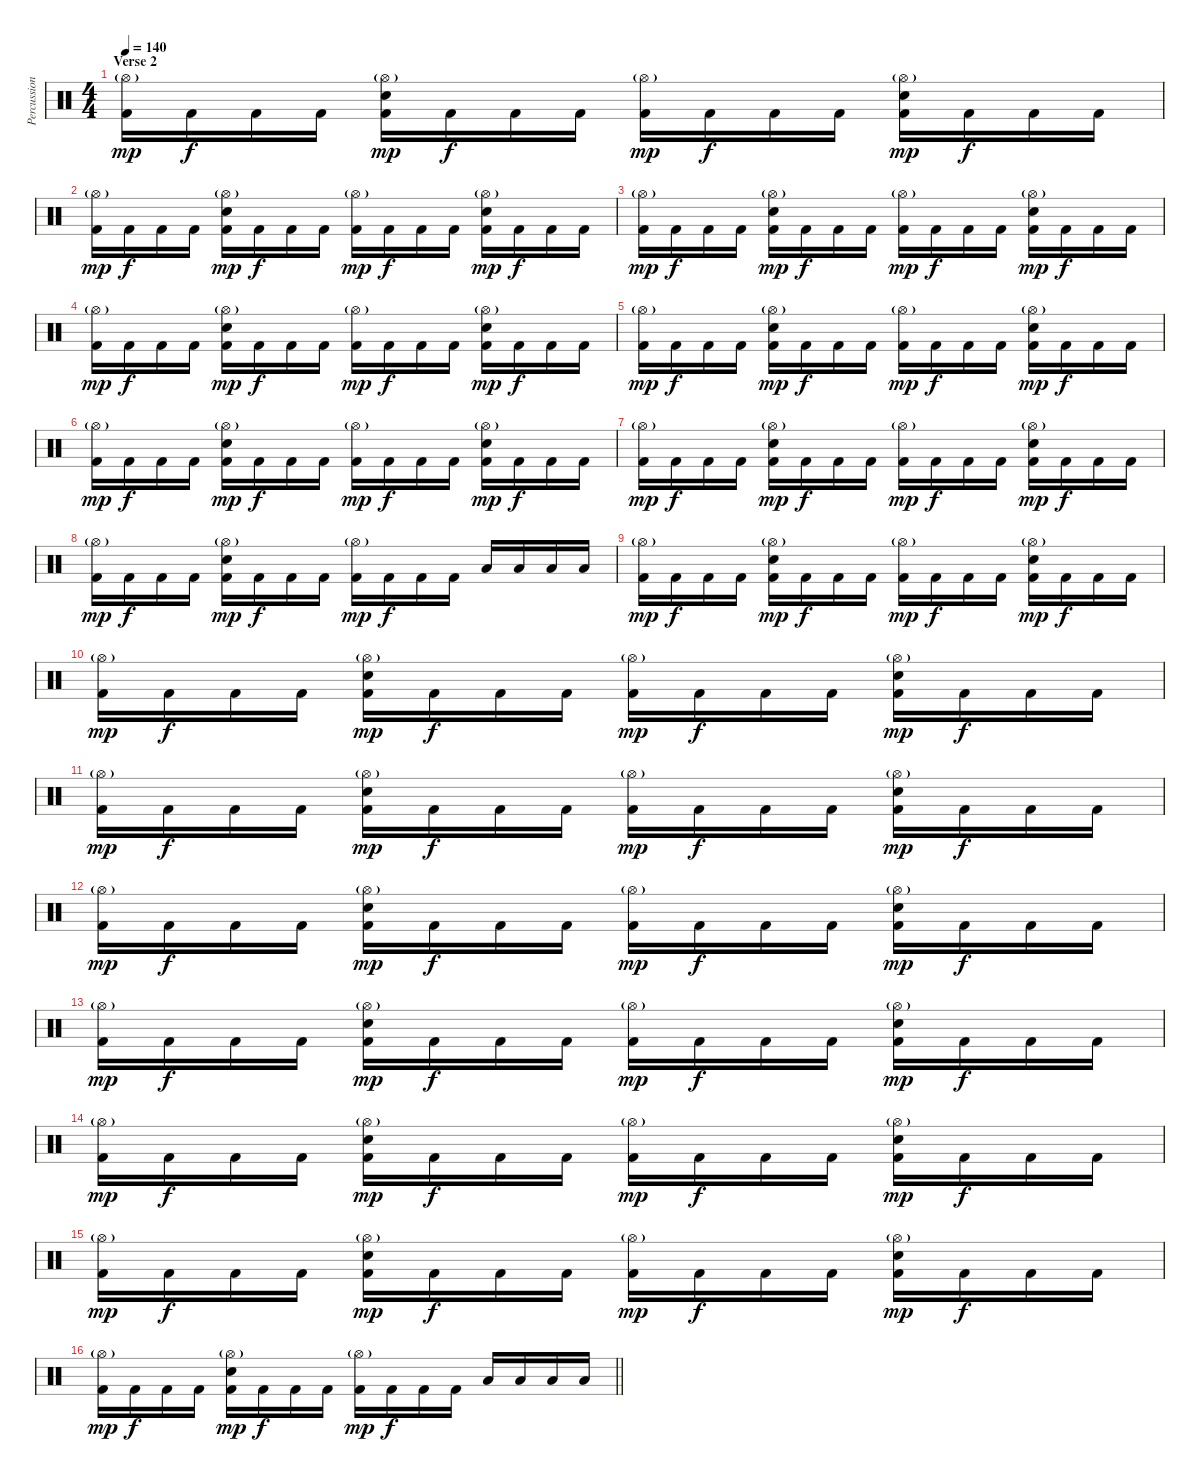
\track ("Percussions" "Percussion") {instrument percussion}
\staff {score}
\articulation defaults
\ts (4 4)
\section ("" "Verse 2")
\tempo 140
\clef neutral
\ks c
("Hi-Hat (open)"{g} "Kick (hit) 2").16{dy mp} "Kick (hit) 2".16{dy f} "Kick (hit) 2".16 "Kick (hit) 2".16 ("Hi-Hat (open)"{g} "Electric Snare (hit)" "Kick (hit) 2").16{dy mp} "Kick (hit) 2".16{dy f} "Kick (hit) 2".16 "Kick (hit) 2".16 ("Hi-Hat (open)"{g} "Kick (hit) 2").16{dy mp} "Kick (hit) 2".16{dy f} "Kick (hit) 2".16 "Kick (hit) 2".16 ("Hi-Hat (open)"{g} "Electric Snare (hit)" "Kick (hit) 2").16{dy mp} "Kick (hit) 2".16{dy f} "Kick (hit) 2".16 "Kick (hit) 2".16 |
("Hi-Hat (open)"{g} "Kick (hit) 2").16{dy mp} "Kick (hit) 2".16{dy f} "Kick (hit) 2".16 "Kick (hit) 2".16 ("Hi-Hat (open)"{g} "Electric Snare (hit)" "Kick (hit) 2").16{dy mp} "Kick (hit) 2".16{dy f} "Kick (hit) 2".16 "Kick (hit) 2".16 ("Hi-Hat (open)"{g} "Kick (hit) 2").16{dy mp} "Kick (hit) 2".16{dy f} "Kick (hit) 2".16 "Kick (hit) 2".16 ("Hi-Hat (open)"{g} "Electric Snare (hit)" "Kick (hit) 2").16{dy mp} "Kick (hit) 2".16{dy f} "Kick (hit) 2".16 "Kick (hit) 2".16 |
("Hi-Hat (open)"{g} "Kick (hit) 2").16{dy mp} "Kick (hit) 2".16{dy f} "Kick (hit) 2".16 "Kick (hit) 2".16 ("Hi-Hat (open)"{g} "Electric Snare (hit)" "Kick (hit) 2").16{dy mp} "Kick (hit) 2".16{dy f} "Kick (hit) 2".16 "Kick (hit) 2".16 ("Hi-Hat (open)"{g} "Kick (hit) 2").16{dy mp} "Kick (hit) 2".16{dy f} "Kick (hit) 2".16 "Kick (hit) 2".16 ("Hi-Hat (open)"{g} "Electric Snare (hit)" "Kick (hit) 2").16{dy mp} "Kick (hit) 2".16{dy f} "Kick (hit) 2".16 "Kick (hit) 2".16 |
("Hi-Hat (open)"{g} "Kick (hit) 2").16{dy mp} "Kick (hit) 2".16{dy f} "Kick (hit) 2".16 "Kick (hit) 2".16 ("Hi-Hat (open)"{g} "Electric Snare (hit)" "Kick (hit) 2").16{dy mp} "Kick (hit) 2".16{dy f} "Kick (hit) 2".16 "Kick (hit) 2".16 ("Hi-Hat (open)"{g} "Kick (hit) 2").16{dy mp} "Kick (hit) 2".16{dy f} "Kick (hit) 2".16 "Kick (hit) 2".16 ("Hi-Hat (open)"{g} "Electric Snare (hit)" "Kick (hit) 2").16{dy mp} "Kick (hit) 2".16{dy f} "Kick (hit) 2".16 "Kick (hit) 2".16 |
("Hi-Hat (open)"{g} "Kick (hit) 2").16{dy mp} "Kick (hit) 2".16{dy f} "Kick (hit) 2".16 "Kick (hit) 2".16 ("Hi-Hat (open)"{g} "Electric Snare (hit)" "Kick (hit) 2").16{dy mp} "Kick (hit) 2".16{dy f} "Kick (hit) 2".16 "Kick (hit) 2".16 ("Hi-Hat (open)"{g} "Kick (hit) 2").16{dy mp} "Kick (hit) 2".16{dy f} "Kick (hit) 2".16 "Kick (hit) 2".16 ("Hi-Hat (open)"{g} "Electric Snare (hit)" "Kick (hit) 2").16{dy mp} "Kick (hit) 2".16{dy f} "Kick (hit) 2".16 "Kick (hit) 2".16 |
("Hi-Hat (open)"{g} "Kick (hit) 2").16{dy mp} "Kick (hit) 2".16{dy f} "Kick (hit) 2".16 "Kick (hit) 2".16 ("Hi-Hat (open)"{g} "Electric Snare (hit)" "Kick (hit) 2").16{dy mp} "Kick (hit) 2".16{dy f} "Kick (hit) 2".16 "Kick (hit) 2".16 ("Hi-Hat (open)"{g} "Kick (hit) 2").16{dy mp} "Kick (hit) 2".16{dy f} "Kick (hit) 2".16 "Kick (hit) 2".16 ("Hi-Hat (open)"{g} "Electric Snare (hit)" "Kick (hit) 2").16{dy mp} "Kick (hit) 2".16{dy f} "Kick (hit) 2".16 "Kick (hit) 2".16 |
("Hi-Hat (open)"{g} "Kick (hit) 2").16{dy mp} "Kick (hit) 2".16{dy f} "Kick (hit) 2".16 "Kick (hit) 2".16 ("Hi-Hat (open)"{g} "Electric Snare (hit)" "Kick (hit) 2").16{dy mp} "Kick (hit) 2".16{dy f} "Kick (hit) 2".16 "Kick (hit) 2".16 ("Hi-Hat (open)"{g} "Kick (hit) 2").16{dy mp} "Kick (hit) 2".16{dy f} "Kick (hit) 2".16 "Kick (hit) 2".16 ("Hi-Hat (open)"{g} "Electric Snare (hit)" "Kick (hit) 2").16{dy mp} "Kick (hit) 2".16{dy f} "Kick (hit) 2".16 "Kick (hit) 2".16 |
("Hi-Hat (open)"{g} "Kick (hit) 2").16{dy mp} "Kick (hit) 2".16{dy f} "Kick (hit) 2".16 "Kick (hit) 2".16 ("Hi-Hat (open)"{g} "Electric Snare (hit)" "Kick (hit) 2").16{dy mp} "Kick (hit) 2".16{dy f} "Kick (hit) 2".16 "Kick (hit) 2".16 ("Hi-Hat (open)"{g} "Kick (hit) 2").16{dy mp} "Kick (hit) 2".16{dy f} "Kick (hit) 2".16 "Kick (hit) 2".16 "Low Tom (hit)".16 "Low Tom (hit)".16 "Low Tom (hit)".16 "Low Tom (hit)".16 |
("Hi-Hat (open)"{g} "Kick (hit) 2").16{dy mp} "Kick (hit) 2".16{dy f} "Kick (hit) 2".16 "Kick (hit) 2".16 ("Hi-Hat (open)"{g} "Electric Snare (hit)" "Kick (hit) 2").16{dy mp} "Kick (hit) 2".16{dy f} "Kick (hit) 2".16 "Kick (hit) 2".16 ("Hi-Hat (open)"{g} "Kick (hit) 2").16{dy mp} "Kick (hit) 2".16{dy f} "Kick (hit) 2".16 "Kick (hit) 2".16 ("Hi-Hat (open)"{g} "Electric Snare (hit)" "Kick (hit) 2").16{dy mp} "Kick (hit) 2".16{dy f} "Kick (hit) 2".16 "Kick (hit) 2".16 |
("Hi-Hat (open)"{g} "Kick (hit) 2").16{dy mp} "Kick (hit) 2".16{dy f} "Kick (hit) 2".16 "Kick (hit) 2".16 ("Hi-Hat (open)"{g} "Electric Snare (hit)" "Kick (hit) 2").16{dy mp} "Kick (hit) 2".16{dy f} "Kick (hit) 2".16 "Kick (hit) 2".16 ("Hi-Hat (open)"{g} "Kick (hit) 2").16{dy mp} "Kick (hit) 2".16{dy f} "Kick (hit) 2".16 "Kick (hit) 2".16 ("Hi-Hat (open)"{g} "Electric Snare (hit)" "Kick (hit) 2").16{dy mp} "Kick (hit) 2".16{dy f} "Kick (hit) 2".16 "Kick (hit) 2".16 |
("Hi-Hat (open)"{g} "Kick (hit) 2").16{dy mp} "Kick (hit) 2".16{dy f} "Kick (hit) 2".16 "Kick (hit) 2".16 ("Hi-Hat (open)"{g} "Electric Snare (hit)" "Kick (hit) 2").16{dy mp} "Kick (hit) 2".16{dy f} "Kick (hit) 2".16 "Kick (hit) 2".16 ("Hi-Hat (open)"{g} "Kick (hit) 2").16{dy mp} "Kick (hit) 2".16{dy f} "Kick (hit) 2".16 "Kick (hit) 2".16 ("Hi-Hat (open)"{g} "Electric Snare (hit)" "Kick (hit) 2").16{dy mp} "Kick (hit) 2".16{dy f} "Kick (hit) 2".16 "Kick (hit) 2".16 |
("Hi-Hat (open)"{g} "Kick (hit) 2").16{dy mp} "Kick (hit) 2".16{dy f} "Kick (hit) 2".16 "Kick (hit) 2".16 ("Hi-Hat (open)"{g} "Electric Snare (hit)" "Kick (hit) 2").16{dy mp} "Kick (hit) 2".16{dy f} "Kick (hit) 2".16 "Kick (hit) 2".16 ("Hi-Hat (open)"{g} "Kick (hit) 2").16{dy mp} "Kick (hit) 2".16{dy f} "Kick (hit) 2".16 "Kick (hit) 2".16 ("Hi-Hat (open)"{g} "Electric Snare (hit)" "Kick (hit) 2").16{dy mp} "Kick (hit) 2".16{dy f} "Kick (hit) 2".16 "Kick (hit) 2".16 |
("Hi-Hat (open)"{g} "Kick (hit) 2").16{dy mp} "Kick (hit) 2".16{dy f} "Kick (hit) 2".16 "Kick (hit) 2".16 ("Hi-Hat (open)"{g} "Electric Snare (hit)" "Kick (hit) 2").16{dy mp} "Kick (hit) 2".16{dy f} "Kick (hit) 2".16 "Kick (hit) 2".16 ("Hi-Hat (open)"{g} "Kick (hit) 2").16{dy mp} "Kick (hit) 2".16{dy f} "Kick (hit) 2".16 "Kick (hit) 2".16 ("Hi-Hat (open)"{g} "Electric Snare (hit)" "Kick (hit) 2").16{dy mp} "Kick (hit) 2".16{dy f} "Kick (hit) 2".16 "Kick (hit) 2".16 |
("Hi-Hat (open)"{g} "Kick (hit) 2").16{dy mp} "Kick (hit) 2".16{dy f} "Kick (hit) 2".16 "Kick (hit) 2".16 ("Hi-Hat (open)"{g} "Electric Snare (hit)" "Kick (hit) 2").16{dy mp} "Kick (hit) 2".16{dy f} "Kick (hit) 2".16 "Kick (hit) 2".16 ("Hi-Hat (open)"{g} "Kick (hit) 2").16{dy mp} "Kick (hit) 2".16{dy f} "Kick (hit) 2".16 "Kick (hit) 2".16 ("Hi-Hat (open)"{g} "Electric Snare (hit)" "Kick (hit) 2").16{dy mp} "Kick (hit) 2".16{dy f} "Kick (hit) 2".16 "Kick (hit) 2".16 |
("Hi-Hat (open)"{g} "Kick (hit) 2").16{dy mp} "Kick (hit) 2".16{dy f} "Kick (hit) 2".16 "Kick (hit) 2".16 ("Hi-Hat (open)"{g} "Electric Snare (hit)" "Kick (hit) 2").16{dy mp} "Kick (hit) 2".16{dy f} "Kick (hit) 2".16 "Kick (hit) 2".16 ("Hi-Hat (open)"{g} "Kick (hit) 2").16{dy mp} "Kick (hit) 2".16{dy f} "Kick (hit) 2".16 "Kick (hit) 2".16 ("Hi-Hat (open)"{g} "Electric Snare (hit)" "Kick (hit) 2").16{dy mp} "Kick (hit) 2".16{dy f} "Kick (hit) 2".16 "Kick (hit) 2".16 |
\barLineRight lightlight
("Hi-Hat (open)"{g} "Kick (hit) 2").16{dy mp} "Kick (hit) 2".16{dy f} "Kick (hit) 2".16 "Kick (hit) 2".16 ("Hi-Hat (open)"{g} "Electric Snare (hit)" "Kick (hit) 2").16{dy mp} "Kick (hit) 2".16{dy f} "Kick (hit) 2".16 "Kick (hit) 2".16 ("Hi-Hat (open)"{g} "Kick (hit) 2").16{dy mp} "Kick (hit) 2".16{dy f} "Kick (hit) 2".16 "Kick (hit) 2".16 "Low Tom (hit)".16 "Low Tom (hit)".16 "Low Tom (hit)".16 "Low Tom (hit)".16
